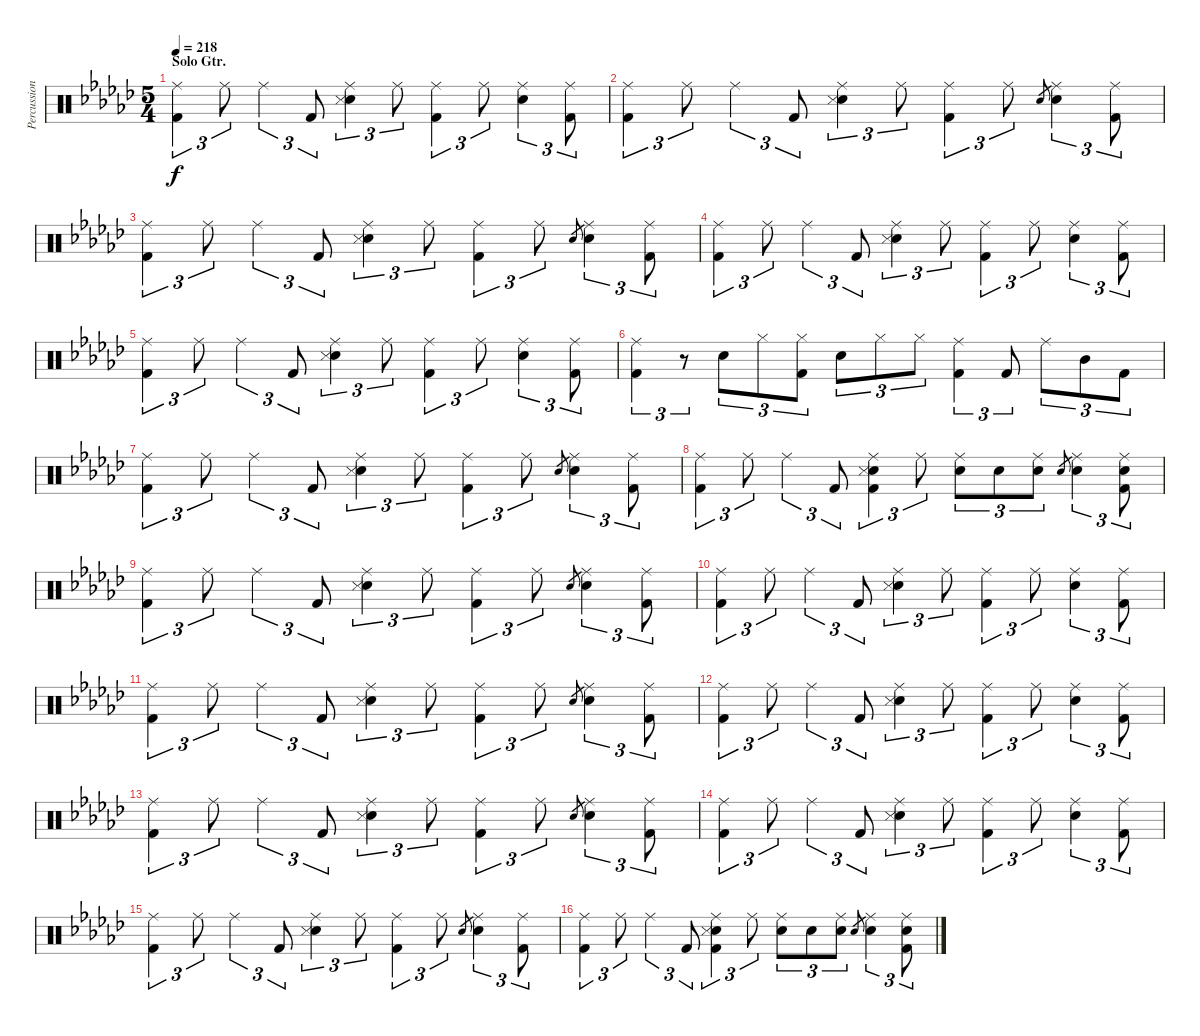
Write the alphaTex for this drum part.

\track ("Percussions" "Percussion") {instrument percussion}
\staff {score}
\articulation defaults
\ts (5 4)
\section ("" "Solo Gtr.")
\tempo 218
\clef neutral
\ks ebminor
("Ride (middle)" "Kick (hit) 2").4{tu (3 2) dy f volume 14 balance 8} "Ride (middle)".8{tu (3 2)} "Ride (middle)".4{tu (3 2)} "Kick (hit) 2".8{tu (3 2)} ("Ride (middle)" "Snare (hit) 2" "Snare (side stick) 3").4{tu (3 2)} "Ride (middle)".8{tu (3 2)} ("Ride (middle)" "Kick (hit) 2").4{tu (3 2)} "Ride (middle)".8{tu (3 2)} ("Ride (middle)" "Snare (hit) 2").4{tu (3 2)} ("Ride (middle)" "Kick (hit) 2").8{tu (3 2)} |
("Ride (middle)" "Kick (hit) 2").4{tu (3 2)} "Ride (middle)".8{tu (3 2)} "Ride (middle)".4{tu (3 2)} "Kick (hit) 2".8{tu (3 2)} ("Ride (middle)" "Snare (hit) 2" "Snare (side stick) 3").4{tu (3 2)} "Ride (middle)".8{tu (3 2)} ("Ride (middle)" "Kick (hit) 2").4{tu (3 2)} "Ride (middle)".8{tu (3 2)} "Snare (hit) 2".8{gr} ("Ride (middle)" "Snare (hit) 2").4{tu (3 2)} ("Ride (middle)" "Kick (hit) 2").8{tu (3 2)} |
("Ride (middle)" "Kick (hit) 2").4{tu (3 2)} "Ride (middle)".8{tu (3 2)} "Ride (middle)".4{tu (3 2)} "Kick (hit) 2".8{tu (3 2)} ("Ride (middle)" "Snare (hit) 2" "Snare (side stick) 3").4{tu (3 2)} "Ride (middle)".8{tu (3 2)} ("Ride (middle)" "Kick (hit) 2").4{tu (3 2)} "Ride (middle)".8{tu (3 2)} "Snare (hit) 2".8{gr} ("Ride (middle)" "Snare (hit) 2").4{tu (3 2)} ("Ride (middle)" "Kick (hit) 2").8{tu (3 2)} |
("Ride (middle)" "Kick (hit) 2").4{tu (3 2)} "Ride (middle)".8{tu (3 2)} "Ride (middle)".4{tu (3 2)} "Kick (hit) 2".8{tu (3 2)} ("Ride (middle)" "Snare (hit) 2" "Snare (side stick) 3").4{tu (3 2)} "Ride (middle)".8{tu (3 2)} ("Ride (middle)" "Kick (hit) 2").4{tu (3 2)} "Ride (middle)".8{tu (3 2)} ("Ride (middle)" "Snare (hit) 2").4{tu (3 2)} ("Ride (middle)" "Kick (hit) 2").8{tu (3 2)} |
("Ride (middle)" "Kick (hit) 2").4{tu (3 2)} "Ride (middle)".8{tu (3 2)} "Ride (middle)".4{tu (3 2)} "Kick (hit) 2".8{tu (3 2)} ("Ride (middle)" "Snare (hit) 2" "Snare (side stick) 3").4{tu (3 2)} "Ride (middle)".8{tu (3 2)} ("Ride (middle)" "Kick (hit) 2").4{tu (3 2)} "Ride (middle)".8{tu (3 2)} ("Ride (middle)" "Snare (hit) 2").4{tu (3 2)} ("Ride (middle)" "Kick (hit) 2").8{tu (3 2)} |
("Ride (middle)" "Kick (hit) 2").4{tu (3 2)} r.8{tu (3 2)} "Snare (hit) 2".8{tu (3 2)} "Hi-Hat (closed)".8{tu (3 2)} ("Hi-Hat (closed)" "Kick (hit) 2").8{tu (3 2)} "Snare (hit) 2".8{tu (3 2)} "Hi-Hat (closed)".8{tu (3 2)} "Hi-Hat (closed)".8{tu (3 2)} ("Ride (middle)" "Kick (hit) 2").4{tu (3 2)} "Kick (hit) 2".8{tu (3 2)} "Ride (middle)".8{tu (3 2)} "Mid Tom (hit)".8{tu (3 2)} "Kick (hit) 2".8{tu (3 2)} |
("Ride (middle)" "Kick (hit) 2").4{tu (3 2)} "Ride (middle)".8{tu (3 2)} "Ride (middle)".4{tu (3 2)} "Kick (hit) 2".8{tu (3 2)} ("Ride (middle)" "Snare (hit) 2" "Snare (side stick) 3").4{tu (3 2)} "Ride (middle)".8{tu (3 2)} ("Ride (middle)" "Kick (hit) 2").4{tu (3 2)} "Ride (middle)".8{tu (3 2)} "Snare (hit) 2".8{gr} ("Ride (middle)" "Snare (hit) 2").4{tu (3 2)} ("Ride (middle)" "Kick (hit) 2").8{tu (3 2)} |
("Ride (middle)" "Kick (hit) 2").4{tu (3 2)} "Ride (middle)".8{tu (3 2)} "Ride (middle)".4{tu (3 2)} "Kick (hit) 2".8{tu (3 2)} ("Ride (middle)" "Snare (hit) 2" "Snare (side stick) 3" "Kick (hit) 2").4{tu (3 2)} "Ride (middle)".8{tu (3 2)} ("Ride (middle)" "Snare (hit) 2").8{tu (3 2)} "Snare (hit) 2".8{tu (3 2)} ("Ride (middle)" "Snare (hit) 2").8{tu (3 2)} "Snare (hit) 2".8{gr} ("Ride (middle)" "Snare (hit) 2").4{tu (3 2)} ("Ride (middle)" "Snare (hit) 2" "Kick (hit) 2").8{tu (3 2)} |
("Ride (middle)" "Kick (hit) 2").4{tu (3 2)} "Ride (middle)".8{tu (3 2)} "Ride (middle)".4{tu (3 2)} "Kick (hit) 2".8{tu (3 2)} ("Ride (middle)" "Snare (hit) 2" "Snare (side stick) 3").4{tu (3 2)} "Ride (middle)".8{tu (3 2)} ("Ride (middle)" "Kick (hit) 2").4{tu (3 2)} "Ride (middle)".8{tu (3 2)} "Snare (hit) 2".8{gr} ("Ride (middle)" "Snare (hit) 2").4{tu (3 2)} ("Ride (middle)" "Kick (hit) 2").8{tu (3 2)} |
("Ride (middle)" "Kick (hit) 2").4{tu (3 2)} "Ride (middle)".8{tu (3 2)} "Ride (middle)".4{tu (3 2)} "Kick (hit) 2".8{tu (3 2)} ("Ride (middle)" "Snare (hit) 2" "Snare (side stick) 3").4{tu (3 2)} "Ride (middle)".8{tu (3 2)} ("Ride (middle)" "Kick (hit) 2").4{tu (3 2)} "Ride (middle)".8{tu (3 2)} ("Ride (middle)" "Snare (hit) 2").4{tu (3 2)} ("Ride (middle)" "Kick (hit) 2").8{tu (3 2)} |
("Ride (middle)" "Kick (hit) 2").4{tu (3 2)} "Ride (middle)".8{tu (3 2)} "Ride (middle)".4{tu (3 2)} "Kick (hit) 2".8{tu (3 2)} ("Ride (middle)" "Snare (hit) 2" "Snare (side stick) 3").4{tu (3 2)} "Ride (middle)".8{tu (3 2)} ("Ride (middle)" "Kick (hit) 2").4{tu (3 2)} "Ride (middle)".8{tu (3 2)} "Snare (hit) 2".8{gr} ("Ride (middle)" "Snare (hit) 2").4{tu (3 2)} ("Ride (middle)" "Kick (hit) 2").8{tu (3 2)} |
("Ride (middle)" "Kick (hit) 2").4{tu (3 2)} "Ride (middle)".8{tu (3 2)} "Ride (middle)".4{tu (3 2)} "Kick (hit) 2".8{tu (3 2)} ("Ride (middle)" "Snare (hit) 2" "Snare (side stick) 3").4{tu (3 2)} "Ride (middle)".8{tu (3 2)} ("Ride (middle)" "Kick (hit) 2").4{tu (3 2)} "Ride (middle)".8{tu (3 2)} ("Ride (middle)" "Snare (hit) 2").4{tu (3 2)} ("Ride (middle)" "Kick (hit) 2").8{tu (3 2)} |
("Ride (middle)" "Kick (hit) 2").4{tu (3 2)} "Ride (middle)".8{tu (3 2)} "Ride (middle)".4{tu (3 2)} "Kick (hit) 2".8{tu (3 2)} ("Ride (middle)" "Snare (hit) 2" "Snare (side stick) 3").4{tu (3 2)} "Ride (middle)".8{tu (3 2)} ("Ride (middle)" "Kick (hit) 2").4{tu (3 2)} "Ride (middle)".8{tu (3 2)} "Snare (hit) 2".8{gr} ("Ride (middle)" "Snare (hit) 2").4{tu (3 2)} ("Ride (middle)" "Kick (hit) 2").8{tu (3 2)} |
("Ride (middle)" "Kick (hit) 2").4{tu (3 2)} "Ride (middle)".8{tu (3 2)} "Ride (middle)".4{tu (3 2)} "Kick (hit) 2".8{tu (3 2)} ("Ride (middle)" "Snare (hit) 2" "Snare (side stick) 3").4{tu (3 2)} "Ride (middle)".8{tu (3 2)} ("Ride (middle)" "Kick (hit) 2").4{tu (3 2)} "Ride (middle)".8{tu (3 2)} ("Ride (middle)" "Snare (hit) 2").4{tu (3 2)} ("Ride (middle)" "Kick (hit) 2").8{tu (3 2)} |
("Ride (middle)" "Kick (hit) 2").4{tu (3 2)} "Ride (middle)".8{tu (3 2)} "Ride (middle)".4{tu (3 2)} "Kick (hit) 2".8{tu (3 2)} ("Ride (middle)" "Snare (hit) 2" "Snare (side stick) 3").4{tu (3 2)} "Ride (middle)".8{tu (3 2)} ("Ride (middle)" "Kick (hit) 2").4{tu (3 2)} "Ride (middle)".8{tu (3 2)} "Snare (hit) 2".8{gr} ("Ride (middle)" "Snare (hit) 2").4{tu (3 2)} ("Ride (middle)" "Kick (hit) 2").8{tu (3 2)} |
("Ride (middle)" "Kick (hit) 2").4{tu (3 2)} "Ride (middle)".8{tu (3 2)} "Ride (middle)".4{tu (3 2)} "Kick (hit) 2".8{tu (3 2)} ("Ride (middle)" "Snare (hit) 2" "Snare (side stick) 3" "Kick (hit) 2").4{tu (3 2)} "Ride (middle)".8{tu (3 2)} ("Ride (middle)" "Snare (hit) 2").8{tu (3 2)} "Snare (hit) 2".8{tu (3 2)} ("Ride (middle)" "Snare (hit) 2").8{tu (3 2)} "Snare (hit) 2".8{gr} ("Ride (middle)" "Snare (hit) 2").4{tu (3 2)} ("Ride (middle)" "Snare (hit) 2" "Kick (hit) 2").8{tu (3 2)}
